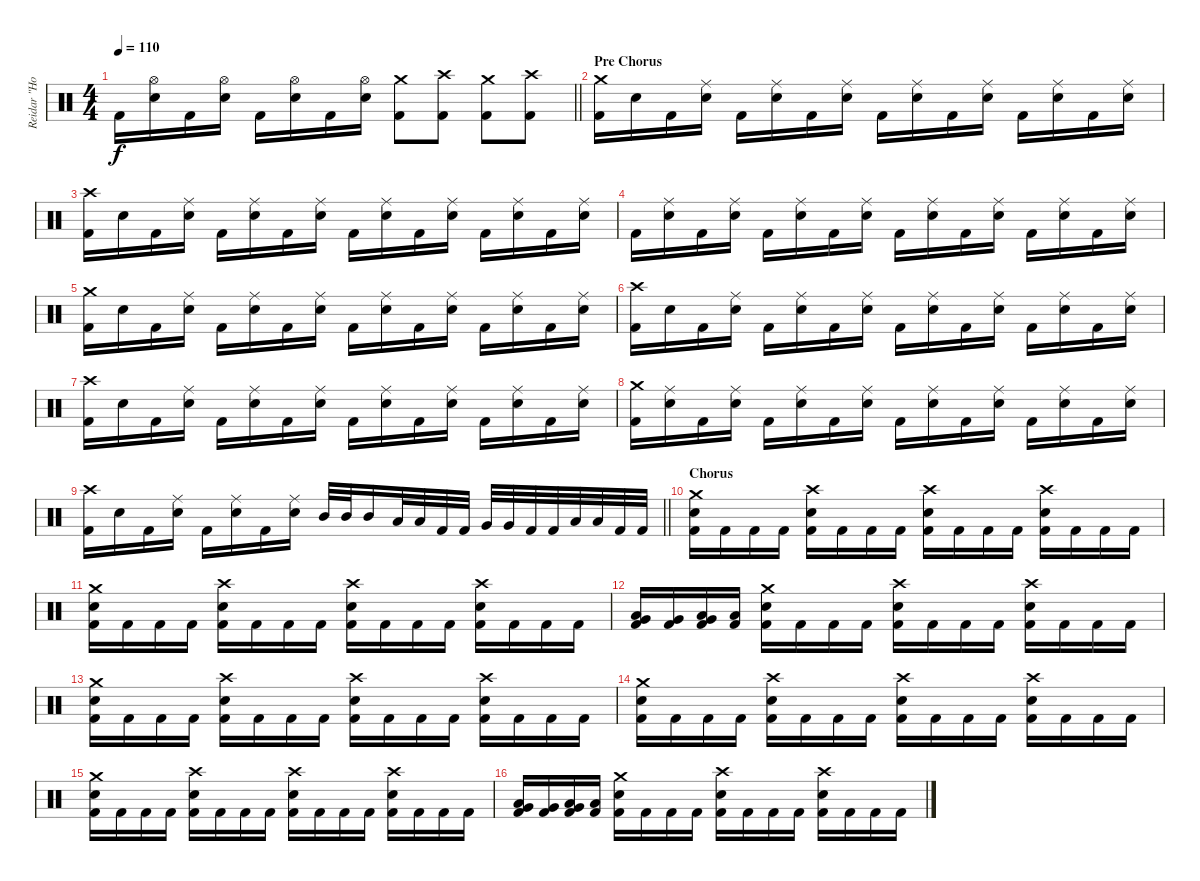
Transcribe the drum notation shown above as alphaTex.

\track ("Reidar \"Horgh\" Horghagen " "Reidar \"Ho") {instrument percussion}
\staff {score}
\articulation defaults
\ts (4 4)
\tempo 110
\clef neutral
\barLineRight lightlight
\ks c "Kick (hit) 2".16{dy f}
("Hi-Hat (open)" "Snare (hit) 2").16 "Kick (hit) 2".16 ("Hi-Hat (open)" "Snare (hit) 2").16 "Kick (hit) 2".16 ("Hi-Hat (open)" "Snare (hit) 2").16 "Kick (hit) 2".16 ("Hi-Hat (open)" "Snare (hit) 2").16 ("Crash medium (hit)" "Kick (hit) 2").8 ("Crash high (hit)" "Kick (hit) 2").8 ("Crash medium (hit)" "Kick (hit) 2").8 ("Crash high (hit)" "Kick (hit) 2").8 |
\section ("" "Pre Chorus")
("Crash medium (hit)" "Kick (hit) 2").16 "Snare (hit) 2".16 "Kick (hit) 2".16 ("Ride (middle)" "Snare (hit) 2").16 "Kick (hit) 2".16 ("Ride (middle)" "Snare (hit) 2").16 "Kick (hit) 2".16 ("Ride (middle)" "Snare (hit) 2").16 "Kick (hit) 2".16 ("Ride (middle)" "Snare (hit) 2").16 "Kick (hit) 2".16 ("Ride (middle)" "Snare (hit) 2").16 "Kick (hit) 2".16 ("Ride (middle)" "Snare (hit) 2").16 "Kick (hit) 2".16 ("Ride (middle)" "Snare (hit) 2").16 |
("Crash high (hit)" "Kick (hit) 2").16 "Snare (hit) 2".16 "Kick (hit) 2".16 ("Ride (middle)" "Snare (hit) 2").16 "Kick (hit) 2".16 ("Ride (middle)" "Snare (hit) 2").16 "Kick (hit) 2".16 ("Ride (middle)" "Snare (hit) 2").16 "Kick (hit) 2".16 ("Ride (middle)" "Snare (hit) 2").16 "Kick (hit) 2".16 ("Ride (middle)" "Snare (hit) 2").16 "Kick (hit) 2".16 ("Ride (middle)" "Snare (hit) 2").16 "Kick (hit) 2".16 ("Ride (middle)" "Snare (hit) 2").16 |
"Kick (hit) 2".16 ("Ride (middle)" "Snare (hit) 2").16 "Kick (hit) 2".16 ("Ride (middle)" "Snare (hit) 2").16 "Kick (hit) 2".16 ("Ride (middle)" "Snare (hit) 2").16 "Kick (hit) 2".16 ("Ride (middle)" "Snare (hit) 2").16 "Kick (hit) 2".16 ("Ride (middle)" "Snare (hit) 2").16 "Kick (hit) 2".16 ("Ride (middle)" "Snare (hit) 2").16 "Kick (hit) 2".16 ("Ride (middle)" "Snare (hit) 2").16 "Kick (hit) 2".16 ("Ride (middle)" "Snare (hit) 2").16 |
("Crash medium (hit)" "Kick (hit) 2").16 "Snare (hit) 2".16 "Kick (hit) 2".16 ("Ride (middle)" "Snare (hit) 2").16 "Kick (hit) 2".16 ("Ride (middle)" "Snare (hit) 2").16 "Kick (hit) 2".16 ("Ride (middle)" "Snare (hit) 2").16 "Kick (hit) 2".16 ("Ride (middle)" "Snare (hit) 2").16 "Kick (hit) 2".16 ("Ride (middle)" "Snare (hit) 2").16 "Kick (hit) 2".16 ("Ride (middle)" "Snare (hit) 2").16 "Kick (hit) 2".16 ("Ride (middle)" "Snare (hit) 2").16 |
("Crash high (hit)" "Kick (hit) 2").16 "Snare (hit) 2".16 "Kick (hit) 2".16 ("Ride (middle)" "Snare (hit) 2").16 "Kick (hit) 2".16 ("Ride (middle)" "Snare (hit) 2").16 "Kick (hit) 2".16 ("Ride (middle)" "Snare (hit) 2").16 "Kick (hit) 2".16 ("Ride (middle)" "Snare (hit) 2").16 "Kick (hit) 2".16 ("Ride (middle)" "Snare (hit) 2").16 "Kick (hit) 2".16 ("Ride (middle)" "Snare (hit) 2").16 "Kick (hit) 2".16 ("Ride (middle)" "Snare (hit) 2").16 |
("Crash high (hit)" "Kick (hit) 2").16 "Snare (hit) 2".16 "Kick (hit) 2".16 ("Ride (middle)" "Snare (hit) 2").16 "Kick (hit) 2".16 ("Ride (middle)" "Snare (hit) 2").16 "Kick (hit) 2".16 ("Ride (middle)" "Snare (hit) 2").16 "Kick (hit) 2".16 ("Ride (middle)" "Snare (hit) 2").16 "Kick (hit) 2".16 ("Ride (middle)" "Snare (hit) 2").16 "Kick (hit) 2".16 ("Ride (middle)" "Snare (hit) 2").16 "Kick (hit) 2".16 ("Ride (middle)" "Snare (hit) 2").16 |
("Crash medium (hit)" "Kick (hit) 2").16 ("Ride (middle)" "Snare (hit) 2").16 "Kick (hit) 2".16 ("Ride (middle)" "Snare (hit) 2").16 "Kick (hit) 2".16 ("Ride (middle)" "Snare (hit) 2").16 "Kick (hit) 2".16 ("Ride (middle)" "Snare (hit) 2").16 "Kick (hit) 2".16 ("Ride (middle)" "Snare (hit) 2").16 "Kick (hit) 2".16 ("Ride (middle)" "Snare (hit) 2").16 "Kick (hit) 2".16 ("Ride (middle)" "Snare (hit) 2").16 "Kick (hit) 2".16 ("Ride (middle)" "Snare (hit) 2").16 |
\barLineRight lightlight
("Crash high (hit)" "Kick (hit) 2").16 "Snare (hit) 2".16 "Kick (hit) 2".16 ("Ride (middle)" "Snare (hit) 2").16 "Kick (hit) 2".16 ("Ride (middle)" "Snare (hit) 2").16 "Kick (hit) 2".16 ("Ride (middle)" "Snare (hit) 2").16 "Mid Tom (hit)".32 "Mid Tom (hit)".32 "Mid Tom (hit)".16 "Low Tom (hit)".32 "Low Tom (hit)".32 "Kick (hit) 2".32 "Kick (hit) 2".32 "Very Low Tom (hit)".32 "Very Low Tom (hit)".32 "Kick (hit) 2".32 "Kick (hit) 2".32 "Low Floor Tom (hit)".32 "Low Floor Tom (hit)".32 "Kick (hit) 2".32 "Kick (hit) 2".32 |
\section ("" "Chorus ")
("Crash medium (hit)" "Snare (hit) 2" "Kick (hit) 2").16 "Kick (hit) 2".16 "Kick (hit) 2".16 "Kick (hit) 2".16 ("Crash high (hit)" "Snare (hit) 2" "Kick (hit) 2").16 "Kick (hit) 2".16 "Kick (hit) 2".16 "Kick (hit) 2".16 ("Crash high (hit)" "Snare (hit) 2" "Kick (hit) 2").16 "Kick (hit) 2".16 "Kick (hit) 2".16 "Kick (hit) 2".16 ("Crash high (hit)" "Snare (hit) 2" "Kick (hit) 2").16 "Kick (hit) 2".16 "Kick (hit) 2".16 "Kick (hit) 2".16 |
("Crash medium (hit)" "Snare (hit) 2" "Kick (hit) 2").16 "Kick (hit) 2".16 "Kick (hit) 2".16 "Kick (hit) 2".16 ("Crash high (hit)" "Snare (hit) 2" "Kick (hit) 2").16 "Kick (hit) 2".16 "Kick (hit) 2".16 "Kick (hit) 2".16 ("Crash high (hit)" "Snare (hit) 2" "Kick (hit) 2").16 "Kick (hit) 2".16 "Kick (hit) 2".16 "Kick (hit) 2".16 ("Crash high (hit)" "Snare (hit) 2" "Kick (hit) 2").16 "Kick (hit) 2".16 "Kick (hit) 2".16 "Kick (hit) 2".16 |
("Low Tom (hit)" "Very Low Tom (hit)" "Kick (hit) 2").16 ("Very Low Tom (hit)" "Kick (hit) 2").16 ("Very Low Tom (hit)" "Low Floor Tom (hit)" "Kick (hit) 2").16 ("Low Floor Tom (hit)" "Kick (hit) 2").16 ("Crash medium (hit)" "Snare (hit) 2" "Kick (hit) 2").16 "Kick (hit) 2".16 "Kick (hit) 2".16 "Kick (hit) 2".16 ("Crash high (hit)" "Snare (hit) 2" "Kick (hit) 2").16 "Kick (hit) 2".16 "Kick (hit) 2".16 "Kick (hit) 2".16 ("Crash high (hit)" "Snare (hit) 2" "Kick (hit) 2").16 "Kick (hit) 2".16 "Kick (hit) 2".16 "Kick (hit) 2".16 |
("Crash medium (hit)" "Snare (hit) 2" "Kick (hit) 2").16 "Kick (hit) 2".16 "Kick (hit) 2".16 "Kick (hit) 2".16 ("Crash high (hit)" "Snare (hit) 2" "Kick (hit) 2").16 "Kick (hit) 2".16 "Kick (hit) 2".16 "Kick (hit) 2".16 ("Crash high (hit)" "Snare (hit) 2" "Kick (hit) 2").16 "Kick (hit) 2".16 "Kick (hit) 2".16 "Kick (hit) 2".16 ("Crash high (hit)" "Snare (hit) 2" "Kick (hit) 2").16 "Kick (hit) 2".16 "Kick (hit) 2".16 "Kick (hit) 2".16 |
("Crash medium (hit)" "Snare (hit) 2" "Kick (hit) 2").16 "Kick (hit) 2".16 "Kick (hit) 2".16 "Kick (hit) 2".16 ("Crash high (hit)" "Snare (hit) 2" "Kick (hit) 2").16 "Kick (hit) 2".16 "Kick (hit) 2".16 "Kick (hit) 2".16 ("Crash high (hit)" "Snare (hit) 2" "Kick (hit) 2").16 "Kick (hit) 2".16 "Kick (hit) 2".16 "Kick (hit) 2".16 ("Crash high (hit)" "Snare (hit) 2" "Kick (hit) 2").16 "Kick (hit) 2".16 "Kick (hit) 2".16 "Kick (hit) 2".16 |
("Crash medium (hit)" "Snare (hit) 2" "Kick (hit) 2").16 "Kick (hit) 2".16 "Kick (hit) 2".16 "Kick (hit) 2".16 ("Crash high (hit)" "Snare (hit) 2" "Kick (hit) 2").16 "Kick (hit) 2".16 "Kick (hit) 2".16 "Kick (hit) 2".16 ("Crash high (hit)" "Snare (hit) 2" "Kick (hit) 2").16 "Kick (hit) 2".16 "Kick (hit) 2".16 "Kick (hit) 2".16 ("Crash high (hit)" "Snare (hit) 2" "Kick (hit) 2").16 "Kick (hit) 2".16 "Kick (hit) 2".16 "Kick (hit) 2".16 |
("Low Tom (hit)" "Very Low Tom (hit)" "Kick (hit) 2").16 ("Very Low Tom (hit)" "Kick (hit) 2").16 ("Very Low Tom (hit)" "Low Floor Tom (hit)" "Kick (hit) 2").16 ("Low Floor Tom (hit)" "Kick (hit) 2").16 ("Crash medium (hit)" "Snare (hit) 2" "Kick (hit) 2").16 "Kick (hit) 2".16 "Kick (hit) 2".16 "Kick (hit) 2".16 ("Crash high (hit)" "Snare (hit) 2" "Kick (hit) 2").16 "Kick (hit) 2".16 "Kick (hit) 2".16 "Kick (hit) 2".16 ("Crash high (hit)" "Snare (hit) 2" "Kick (hit) 2").16 "Kick (hit) 2".16 "Kick (hit) 2".16 "Kick (hit) 2".16
